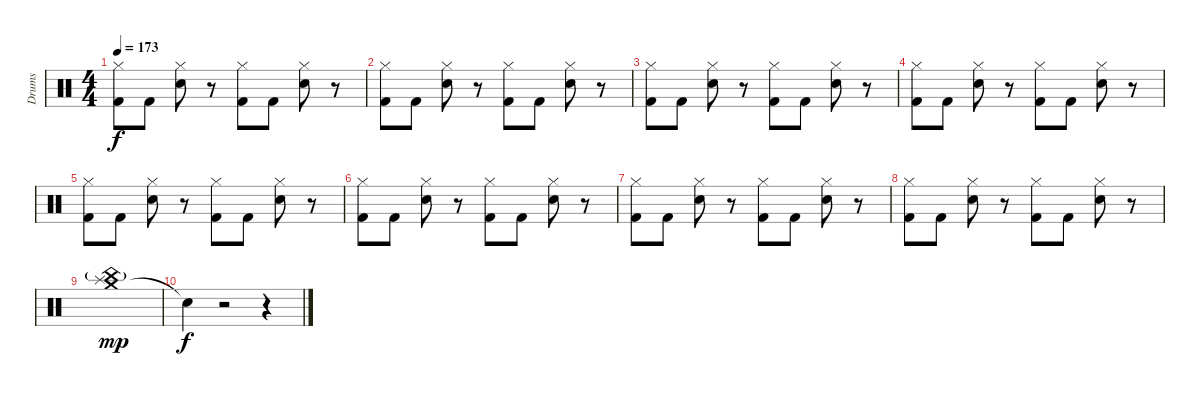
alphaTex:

\track ("Drums" "Drums") {instrument percussion}
\staff {score}
\articulation defaults
\ts (4 4)
\tempo 173
\clef neutral
\ks c
("Hi-Hat (closed)" "Kick (hit) 2").8{dy f} "Kick (hit) 2".8 ("Hi-Hat (closed)" "Snare (hit) 2").8 r.8 ("Hi-Hat (closed)" "Kick (hit) 2").8 "Kick (hit) 2".8 ("Hi-Hat (closed)" "Snare (hit) 2").8 r.8 |
("Hi-Hat (closed)" "Kick (hit) 2").8 "Kick (hit) 2".8 ("Hi-Hat (closed)" "Snare (hit) 2").8 r.8 ("Hi-Hat (closed)" "Kick (hit) 2").8 "Kick (hit) 2".8 ("Hi-Hat (closed)" "Snare (hit) 2").8 r.8 |
("Hi-Hat (closed)" "Kick (hit) 2").8 "Kick (hit) 2".8 ("Hi-Hat (closed)" "Snare (hit) 2").8 r.8 ("Hi-Hat (closed)" "Kick (hit) 2").8 "Kick (hit) 2".8 ("Hi-Hat (closed)" "Snare (hit) 2").8 r.8 |
("Hi-Hat (closed)" "Kick (hit) 2").8 "Kick (hit) 2".8 ("Hi-Hat (closed)" "Snare (hit) 2").8 r.8 ("Hi-Hat (closed)" "Kick (hit) 2").8 "Kick (hit) 2".8 ("Hi-Hat (closed)" "Snare (hit) 2").8 r.8 |
("Hi-Hat (closed)" "Kick (hit) 2").8 "Kick (hit) 2".8 ("Hi-Hat (closed)" "Snare (hit) 2").8 r.8 ("Hi-Hat (closed)" "Kick (hit) 2").8 "Kick (hit) 2".8 ("Hi-Hat (closed)" "Snare (hit) 2").8 r.8 |
("Hi-Hat (closed)" "Kick (hit) 2").8 "Kick (hit) 2".8 ("Hi-Hat (closed)" "Snare (hit) 2").8 r.8 ("Hi-Hat (closed)" "Kick (hit) 2").8 "Kick (hit) 2".8 ("Hi-Hat (closed)" "Snare (hit) 2").8 r.8 |
("Hi-Hat (closed)" "Kick (hit) 2").8 "Kick (hit) 2".8 ("Hi-Hat (closed)" "Snare (hit) 2").8 r.8 ("Hi-Hat (closed)" "Kick (hit) 2").8 "Kick (hit) 2".8 ("Hi-Hat (closed)" "Snare (hit) 2").8 r.8 |
("Hi-Hat (closed)" "Kick (hit) 2").8 "Kick (hit) 2".8 ("Hi-Hat (closed)" "Snare (hit) 2").8 r.8 ("Hi-Hat (closed)" "Kick (hit) 2").8 "Kick (hit) 2".8 ("Hi-Hat (closed)" "Snare (hit) 2").8 r.8 |
("Crash medium (hit)" "Splash (hit)" "China (hit)"{g}).1{dy mp} |
"Snare (hit)"{t}.4{dy f} r.2 r.4
